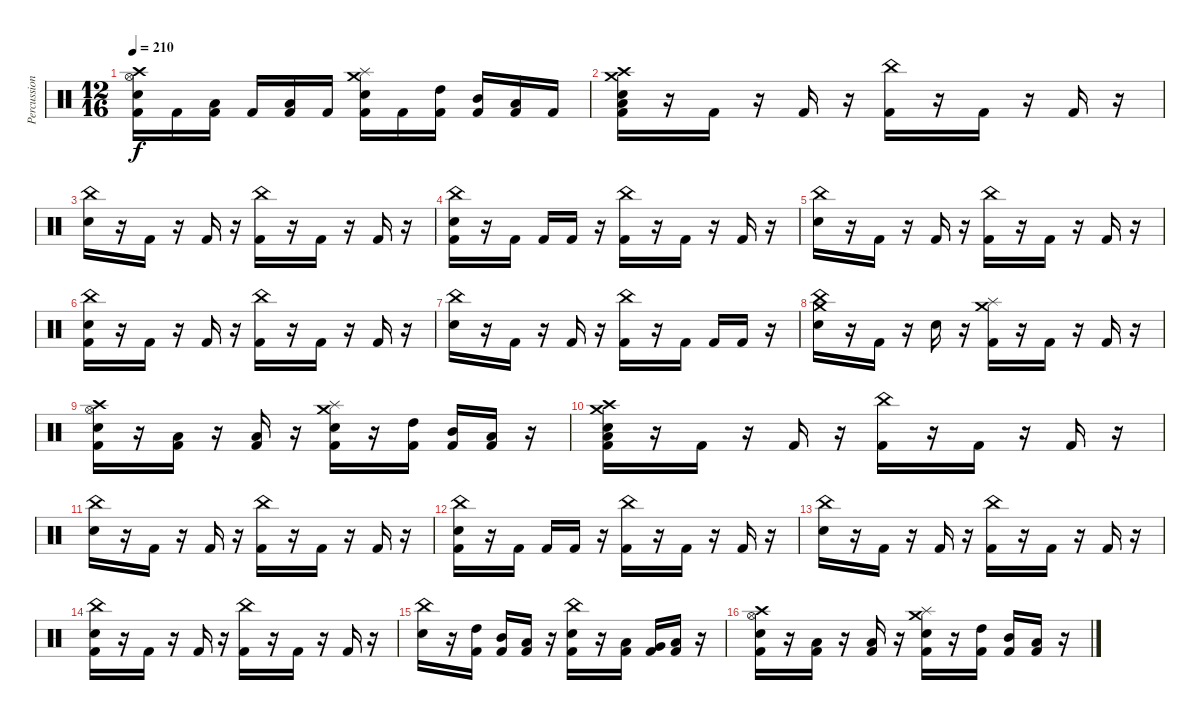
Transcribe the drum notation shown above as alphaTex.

\track ("Percussion" "Percussion") {instrument percussion}
\staff {score}
\articulation defaults
\ts (12 16)
\tempo 210
\clef neutral
\ks c
("Crash high (hit)" "Hi-Hat (open)" "Electric Snare (hit)" "Kick (hit) 2").16{dy f} "Kick (hit) 2".16 ("Low Tom (hit)" "Kick (hit) 2").16 "Kick (hit) 2".16 ("Low Floor Tom (hit)" "Kick (hit) 2").16 "Kick (hit) 2".16 ("Crash medium (hit)" "Splash (hit)" "Electric Snare (hit)" "Kick (hit) 2").16 "Kick (hit) 2".16 ("High Tom (hit)" "Kick (hit) 2").16 ("Mid Tom (hit)" "Kick (hit) 2").16 ("Low Tom (hit)" "Kick (hit) 2").16 "Kick (hit) 2".16 |
("Crash high (hit)" "Crash medium (hit)" "Electric Snare (hit)" "Low Floor Tom (hit)" "Kick (hit) 2").16 r.16 "Kick (hit) 2".16 r.16 "Kick (hit) 2".16 r.16 ("China (hit)" "Kick (hit) 2").16 r.16 "Kick (hit) 2".16 r.16 "Kick (hit) 2".16 r.16 |
("China (hit)" "Electric Snare (hit)").16 r.16 "Kick (hit) 2".16 r.16 "Kick (hit) 2".16 r.16 ("China (hit)" "Kick (hit) 2").16 r.16 "Kick (hit) 2".16 r.16 "Kick (hit) 2".16 r.16 |
("China (hit)" "Electric Snare (hit)" "Kick (hit) 2").16 r.16 "Kick (hit) 2".16 "Kick (hit) 2".16 "Kick (hit) 2".16 r.16 ("China (hit)" "Kick (hit) 2").16 r.16 "Kick (hit) 2".16 r.16 "Kick (hit) 2".16 r.16 |
("China (hit)" "Electric Snare (hit)").16 r.16 "Kick (hit) 2".16 r.16 "Kick (hit) 2".16 r.16 ("China (hit)" "Kick (hit) 2").16 r.16 "Kick (hit) 2".16 r.16 "Kick (hit) 2".16 r.16 |
("China (hit)" "Electric Snare (hit)" "Kick (hit) 2").16 r.16 "Kick (hit) 2".16 r.16 "Kick (hit) 2".16 r.16 ("China (hit)" "Kick (hit) 2").16 r.16 "Kick (hit) 2".16 r.16 "Kick (hit) 2".16 r.16 |
("China (hit)" "Electric Snare (hit)").16 r.16 "Kick (hit) 2".16 r.16 "Kick (hit) 2".16 r.16 ("China (hit)" "Kick (hit) 2").16 r.16 "Kick (hit) 2".16 "Kick (hit) 2".16 "Kick (hit) 2".16 r.16 |
("Crash medium (hit)" "China (hit)" "Electric Snare (hit)").16 r.16 "Kick (hit) 2".16 r.16 "Electric Snare (hit)".16 r.16 ("Crash medium (hit)" "Splash (hit)" "Kick (hit) 2").16 r.16 "Kick (hit) 2".16 r.16 "Kick (hit) 2".16 r.16 |
("Crash high (hit)" "Hi-Hat (open)" "Electric Snare (hit)" "Kick (hit) 2").16 r.16 ("Low Tom (hit)" "Kick (hit) 2").16 r.16 ("Low Floor Tom (hit)" "Kick (hit) 2").16 r.16 ("Crash medium (hit)" "Splash (hit)" "Electric Snare (hit)" "Kick (hit) 2").16 r.16 ("High Tom (hit)" "Kick (hit) 2").16 ("Mid Tom (hit)" "Kick (hit) 2").16 ("Low Tom (hit)" "Kick (hit) 2").16 r.16 |
("Crash high (hit)" "Crash medium (hit)" "Electric Snare (hit)" "Low Floor Tom (hit)" "Kick (hit) 2").16 r.16 "Kick (hit) 2".16 r.16 "Kick (hit) 2".16 r.16 ("China (hit)" "Kick (hit) 2").16 r.16 "Kick (hit) 2".16 r.16 "Kick (hit) 2".16 r.16 |
("China (hit)" "Electric Snare (hit)").16 r.16 "Kick (hit) 2".16 r.16 "Kick (hit) 2".16 r.16 ("China (hit)" "Kick (hit) 2").16 r.16 "Kick (hit) 2".16 r.16 "Kick (hit) 2".16 r.16 |
("China (hit)" "Electric Snare (hit)" "Kick (hit) 2").16 r.16 "Kick (hit) 2".16 "Kick (hit) 2".16 "Kick (hit) 2".16 r.16 ("China (hit)" "Kick (hit) 2").16 r.16 "Kick (hit) 2".16 r.16 "Kick (hit) 2".16 r.16 |
("China (hit)" "Electric Snare (hit)").16 r.16 "Kick (hit) 2".16 r.16 "Kick (hit) 2".16 r.16 ("China (hit)" "Kick (hit) 2").16 r.16 "Kick (hit) 2".16 r.16 "Kick (hit) 2".16 r.16 |
("China (hit)" "Electric Snare (hit)" "Kick (hit) 2").16 r.16 "Kick (hit) 2".16 r.16 "Kick (hit) 2".16 r.16 ("China (hit)" "Kick (hit) 2").16 r.16 "Kick (hit) 2".16 r.16 "Kick (hit) 2".16 r.16 |
("China (hit)" "Electric Snare (hit)").16 r.16 ("High Tom (hit)" "Kick (hit) 2").16 ("Mid Tom (hit)" "Kick (hit) 2").16 ("Low Tom (hit)" "Kick (hit) 2").16 r.16 ("China (hit)" "Electric Snare (hit)" "Kick (hit) 2").16 r.16 ("Low Tom (hit)" "Kick (hit) 2").16 ("Very Low Tom (hit)" "Kick (hit) 2").16 ("Low Floor Tom (hit)" "Kick (hit) 2").16 r.16 |
("Crash high (hit)" "Hi-Hat (open)" "Electric Snare (hit)" "Kick (hit) 2").16 r.16 ("Low Tom (hit)" "Kick (hit) 2").16 r.16 ("Low Floor Tom (hit)" "Kick (hit) 2").16 r.16 ("Crash medium (hit)" "Splash (hit)" "Electric Snare (hit)" "Kick (hit) 2").16 r.16 ("High Tom (hit)" "Kick (hit) 2").16 ("Mid Tom (hit)" "Kick (hit) 2").16 ("Low Tom (hit)" "Kick (hit) 2").16 r.16
